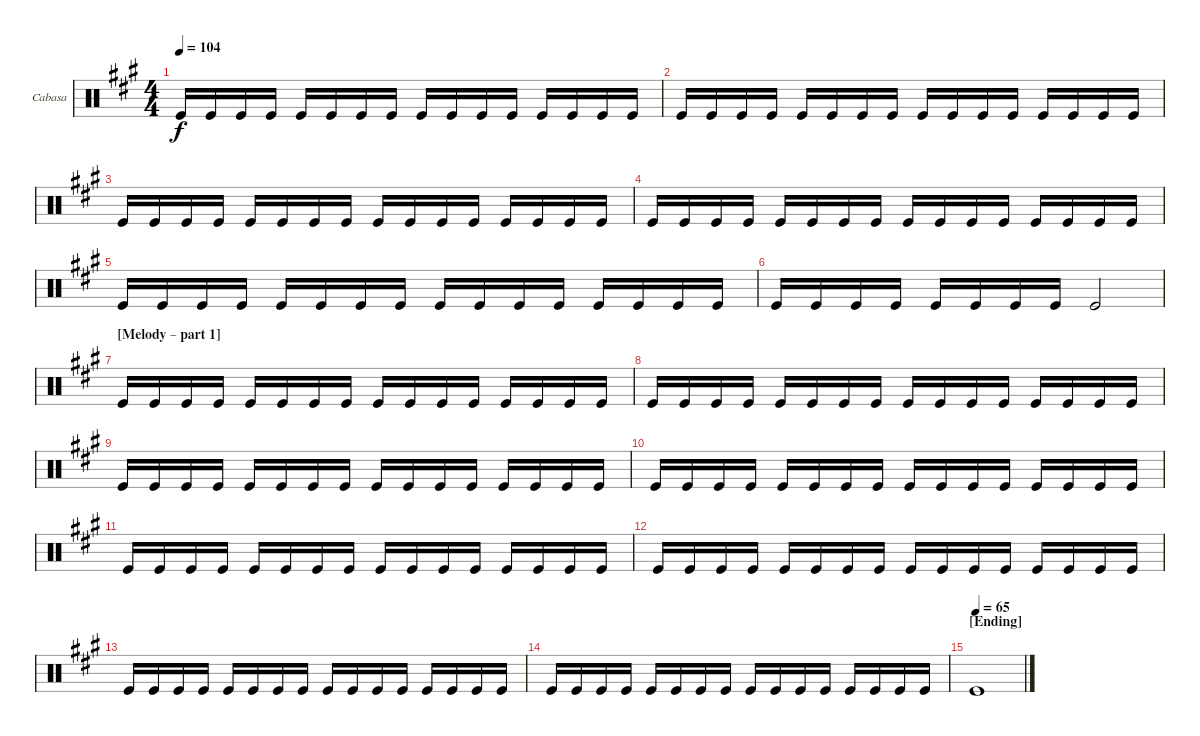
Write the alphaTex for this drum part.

\bracketExtendMode groupsimilarinstruments
\firstSystemTrackNameOrientation horizontal
\otherSystemsTrackNameOrientation horizontal
\track ("Cabasa" "Cabasa") {instrument percussion}
\staff {score}
\articulation defaults
\ts (4 4)
\tempo 104
\clef neutral
\ks a "Kick (hit)".16{dy f} "Kick (hit)".16 "Kick (hit)".16 "Kick (hit)".16 "Kick (hit)".16 "Kick (hit)".16 "Kick (hit)".16 "Kick (hit)".16 "Kick (hit)".16 "Kick (hit)".16 "Kick (hit)".16 "Kick (hit)".16 "Kick (hit)".16 "Kick (hit)".16 "Kick (hit)".16 "Kick (hit)".16
|
"Kick (hit)".16 "Kick (hit)".16 "Kick (hit)".16 "Kick (hit)".16 "Kick (hit)".16 "Kick (hit)".16 "Kick (hit)".16 "Kick (hit)".16 "Kick (hit)".16 "Kick (hit)".16 "Kick (hit)".16 "Kick (hit)".16 "Kick (hit)".16 "Kick (hit)".16 "Kick (hit)".16 "Kick (hit)".16 |
"Kick (hit)".16 "Kick (hit)".16 "Kick (hit)".16 "Kick (hit)".16 "Kick (hit)".16 "Kick (hit)".16 "Kick (hit)".16 "Kick (hit)".16 "Kick (hit)".16 "Kick (hit)".16 "Kick (hit)".16 "Kick (hit)".16 "Kick (hit)".16 "Kick (hit)".16 "Kick (hit)".16 "Kick (hit)".16 |
"Kick (hit)".16 "Kick (hit)".16 "Kick (hit)".16 "Kick (hit)".16 "Kick (hit)".16 "Kick (hit)".16 "Kick (hit)".16 "Kick (hit)".16 "Kick (hit)".16 "Kick (hit)".16 "Kick (hit)".16 "Kick (hit)".16 "Kick (hit)".16 "Kick (hit)".16 "Kick (hit)".16 "Kick (hit)".16 |
"Kick (hit)".16 "Kick (hit)".16 "Kick (hit)".16 "Kick (hit)".16 "Kick (hit)".16 "Kick (hit)".16 "Kick (hit)".16 "Kick (hit)".16 "Kick (hit)".16 "Kick (hit)".16 "Kick (hit)".16 "Kick (hit)".16 "Kick (hit)".16 "Kick (hit)".16 "Kick (hit)".16 "Kick (hit)".16 |
"Kick (hit)".16 "Kick (hit)".16 "Kick (hit)".16 "Kick (hit)".16 "Kick (hit)".16 "Kick (hit)".16 "Kick (hit)".16 "Kick (hit)".16 "Kick (hit)".2 |
\section ("" "[Melody – part 1] ")
"Kick (hit)".16 "Kick (hit)".16 "Kick (hit)".16 "Kick (hit)".16 "Kick (hit)".16 "Kick (hit)".16 "Kick (hit)".16 "Kick (hit)".16 "Kick (hit)".16 "Kick (hit)".16 "Kick (hit)".16 "Kick (hit)".16 "Kick (hit)".16 "Kick (hit)".16 "Kick (hit)".16 "Kick (hit)".16 |
"Kick (hit)".16 "Kick (hit)".16 "Kick (hit)".16 "Kick (hit)".16 "Kick (hit)".16 "Kick (hit)".16 "Kick (hit)".16 "Kick (hit)".16 "Kick (hit)".16 "Kick (hit)".16 "Kick (hit)".16 "Kick (hit)".16 "Kick (hit)".16 "Kick (hit)".16 "Kick (hit)".16 "Kick (hit)".16 |
"Kick (hit)".16 "Kick (hit)".16 "Kick (hit)".16 "Kick (hit)".16 "Kick (hit)".16 "Kick (hit)".16 "Kick (hit)".16 "Kick (hit)".16 "Kick (hit)".16 "Kick (hit)".16 "Kick (hit)".16 "Kick (hit)".16 "Kick (hit)".16 "Kick (hit)".16 "Kick (hit)".16 "Kick (hit)".16 |
"Kick (hit)".16 "Kick (hit)".16 "Kick (hit)".16 "Kick (hit)".16 "Kick (hit)".16 "Kick (hit)".16 "Kick (hit)".16 "Kick (hit)".16 "Kick (hit)".16 "Kick (hit)".16 "Kick (hit)".16 "Kick (hit)".16 "Kick (hit)".16 "Kick (hit)".16 "Kick (hit)".16 "Kick (hit)".16 |
"Kick (hit)".16 "Kick (hit)".16 "Kick (hit)".16 "Kick (hit)".16 "Kick (hit)".16 "Kick (hit)".16 "Kick (hit)".16 "Kick (hit)".16 "Kick (hit)".16 "Kick (hit)".16 "Kick (hit)".16 "Kick (hit)".16 "Kick (hit)".16 "Kick (hit)".16 "Kick (hit)".16 "Kick (hit)".16 |
"Kick (hit)".16 "Kick (hit)".16 "Kick (hit)".16 "Kick (hit)".16 "Kick (hit)".16 "Kick (hit)".16 "Kick (hit)".16 "Kick (hit)".16 "Kick (hit)".16 "Kick (hit)".16 "Kick (hit)".16 "Kick (hit)".16 "Kick (hit)".16 "Kick (hit)".16 "Kick (hit)".16 "Kick (hit)".16 |
"Kick (hit)".16 "Kick (hit)".16 "Kick (hit)".16 "Kick (hit)".16 "Kick (hit)".16 "Kick (hit)".16 "Kick (hit)".16 "Kick (hit)".16 "Kick (hit)".16 "Kick (hit)".16 "Kick (hit)".16 "Kick (hit)".16 "Kick (hit)".16 "Kick (hit)".16 "Kick (hit)".16 "Kick (hit)".16 |
"Kick (hit)".16 "Kick (hit)".16 "Kick (hit)".16 "Kick (hit)".16 "Kick (hit)".16 "Kick (hit)".16 "Kick (hit)".16 "Kick (hit)".16 "Kick (hit)".16 "Kick (hit)".16 "Kick (hit)".16 "Kick (hit)".16 "Kick (hit)".16 "Kick (hit)".16 "Kick (hit)".16 "Kick (hit)".16 |
\section ("" "[Ending]")
\tempo (65)
"Kick (hit)".1
